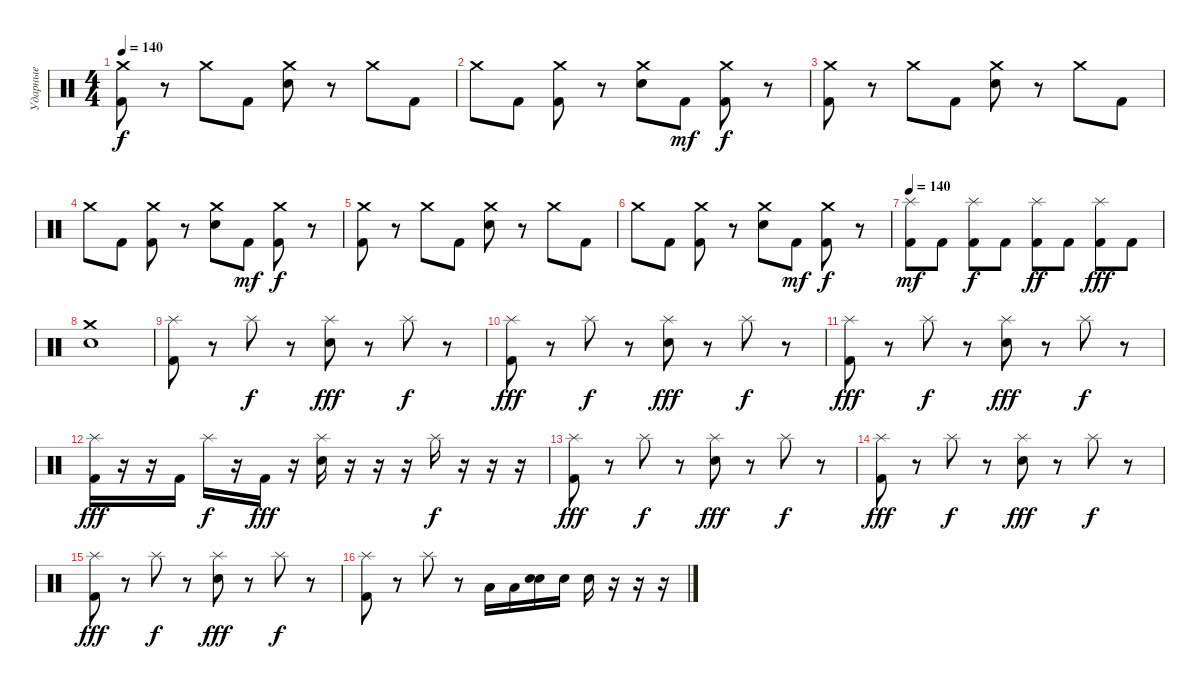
\track ("Ударные" "Ударные") {instrument percussion}
\staff {score}
\articulation defaults
\ts (4 4)
\tempo 140
\clef neutral
\ks c
("Crash medium (hit)" "Kick (hit) 2").8{dy f} r.8 "Crash medium (hit)".8 "Kick (hit) 2".8 ("Crash medium (hit)" "Snare (hit) 2").8 r.8 "Crash medium (hit)".8 "Kick (hit) 2".8 |
"Crash medium (hit)".8 "Kick (hit) 2".8 ("Crash medium (hit)" "Kick (hit) 2").8 r.8 ("Crash medium (hit)" "Snare (hit) 2").8 "Kick (hit) 2".8{dy mf} ("Crash medium (hit)" "Kick (hit) 2").8{dy f} r.8 |
("Crash medium (hit)" "Kick (hit) 2").8 r.8 "Crash medium (hit)".8 "Kick (hit) 2".8 ("Crash medium (hit)" "Snare (hit) 2").8 r.8 "Crash medium (hit)".8 "Kick (hit) 2".8 |
"Crash medium (hit)".8 "Kick (hit) 2".8 ("Crash medium (hit)" "Kick (hit) 2").8 r.8 ("Crash medium (hit)" "Snare (hit) 2").8 "Kick (hit) 2".8{dy mf} ("Crash medium (hit)" "Kick (hit) 2").8{dy f} r.8 |
("Crash medium (hit)" "Kick (hit) 2").8 r.8 "Crash medium (hit)".8 "Kick (hit) 2".8 ("Crash medium (hit)" "Snare (hit) 2").8 r.8 "Crash medium (hit)".8 "Kick (hit) 2".8 |
"Crash medium (hit)".8 "Kick (hit) 2".8 ("Crash medium (hit)" "Kick (hit) 2").8 r.8 ("Crash medium (hit)" "Snare (hit) 2").8 "Kick (hit) 2".8{dy mf} ("Crash medium (hit)" "Kick (hit) 2").8{dy f} r.8 |
\tempo 140
("Splash (hit)" "Kick (hit) 2").8{dy mf} "Kick (hit) 2".8 ("Splash (hit)" "Kick (hit) 2").8{dy f} "Kick (hit) 2".8 ("Splash (hit)" "Kick (hit) 2").8{dy ff} "Kick (hit) 2".8 ("Splash (hit)" "Kick (hit) 2").8{dy fff} "Kick (hit) 2".8 |
("Crash medium (hit)" "Snare (hit) 2").1 |
("Splash (hit)" "Kick (hit) 2").8 r.8 "Splash (hit)".8{dy f} r.8 ("Splash (hit)" "Snare (hit) 2").8{dy fff} r.8 "Splash (hit)".8{dy f} r.8 |
("Splash (hit)" "Kick (hit) 2").8{dy fff} r.8 "Splash (hit)".8{dy f} r.8 ("Splash (hit)" "Snare (hit) 2").8{dy fff} r.8 "Splash (hit)".8{dy f} r.8 |
("Splash (hit)" "Kick (hit) 2").8{dy fff} r.8 "Splash (hit)".8{dy f} r.8 ("Splash (hit)" "Snare (hit) 2").8{dy fff} r.8 "Splash (hit)".8{dy f} r.8 |
("Splash (hit)" "Kick (hit) 2").16{dy fff} r.16 r.16 "Kick (hit) 2".16 "Splash (hit)".16{dy f} r.16 "Kick (hit) 2".16{dy fff} r.16 ("Splash (hit)" "Snare (hit) 2").16 r.16 r.16 r.16 "Splash (hit)".16{dy f} r.16 r.16 r.16 |
("Splash (hit)" "Kick (hit) 2").8{dy fff} r.8 "Splash (hit)".8{dy f} r.8 ("Splash (hit)" "Snare (hit) 2").8{dy fff} r.8 "Splash (hit)".8{dy f} r.8 |
("Splash (hit)" "Kick (hit) 2").8{dy fff} r.8 "Splash (hit)".8{dy f} r.8 ("Splash (hit)" "Snare (hit) 2").8{dy fff} r.8 "Splash (hit)".8{dy f} r.8 |
("Splash (hit)" "Kick (hit) 2").8{dy fff} r.8 "Splash (hit)".8{dy f} r.8 ("Splash (hit)" "Snare (hit) 2").8{dy fff} r.8 "Splash (hit)".8{dy f} r.8 |
("Splash (hit)" "Kick (hit) 2").8 r.8 "Splash (hit)".8 r.8 "Low Floor Tom (hit)".16 "Low Floor Tom (hit)".16 ("Snare (hit) 2" "Electric Snare (hit)").16 "Snare (hit) 2".16 "Snare (hit) 2".16 r.16 r.16 r.16
